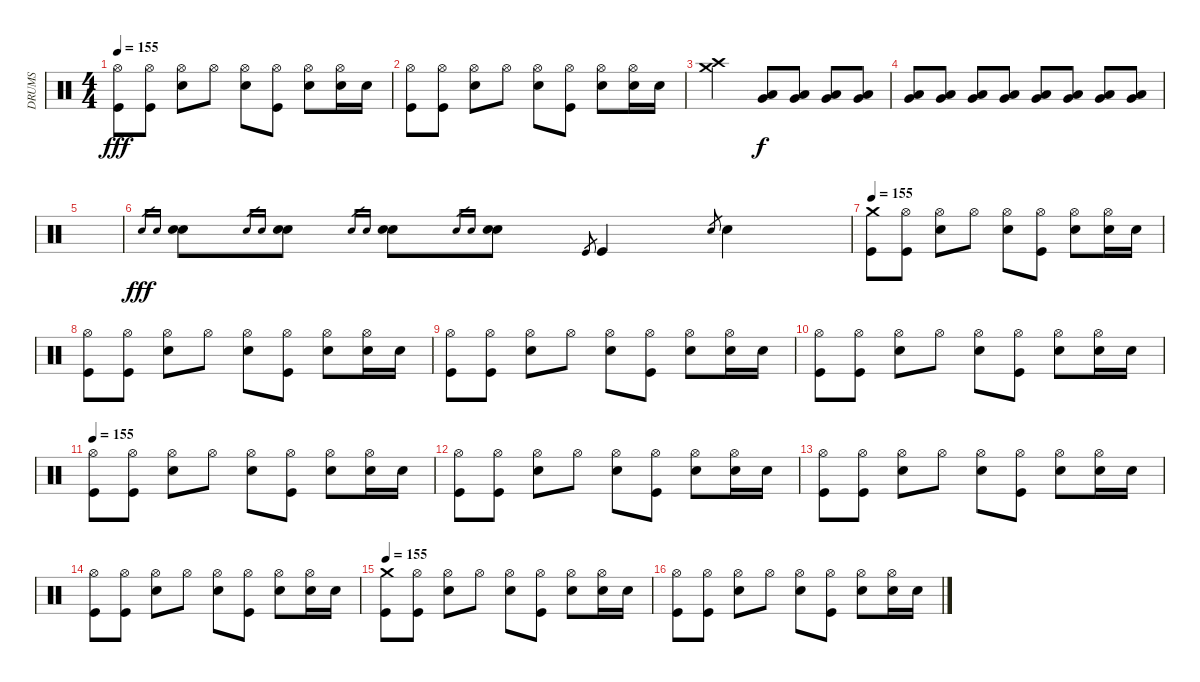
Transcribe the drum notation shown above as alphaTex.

\track ("DRUMS" "DRUMS") {instrument percussion}
\staff {score}
\articulation defaults
\ts (4 4)
\tempo 155
\clef neutral
\ks c
("Kick (hit)" "Hi-Hat (open)").8{dy fff} ("Kick (hit)" "Hi-Hat (open)").8 ("Snare (hit) 2" "Hi-Hat (open)").8 "Hi-Hat (open)".8 ("Snare (hit) 2" "Hi-Hat (open)").8 ("Kick (hit)" "Hi-Hat (open)").8 ("Snare (hit) 2" "Hi-Hat (open)").8 ("Snare (hit) 2" "Hi-Hat (open)").16 "Snare (hit) 2".16 |
("Kick (hit)" "Hi-Hat (open)").8 ("Kick (hit)" "Hi-Hat (open)").8 ("Snare (hit) 2" "Hi-Hat (open)").8 "Hi-Hat (open)".8 ("Snare (hit) 2" "Hi-Hat (open)").8 ("Kick (hit)" "Hi-Hat (open)").8 ("Snare (hit) 2" "Hi-Hat (open)").8 ("Snare (hit) 2" "Hi-Hat (open)").16 "Snare (hit) 2".16 |
("Crash medium (hit)" "Crash high (hit)").2 ("Low Tom (hit)" "Very Low Tom (hit)").8{dy f} ("Low Tom (hit)" "Very Low Tom (hit)").8 ("Low Tom (hit)" "Very Low Tom (hit)").8 ("Low Tom (hit)" "Very Low Tom (hit)").8 |
("Low Tom (hit)" "Very Low Tom (hit)").8 ("Low Tom (hit)" "Very Low Tom (hit)").8 ("Low Tom (hit)" "Very Low Tom (hit)").8 ("Low Tom (hit)" "Very Low Tom (hit)").8 ("Low Tom (hit)" "Very Low Tom (hit)").8 ("Low Tom (hit)" "Very Low Tom (hit)").8 ("Low Tom (hit)" "Very Low Tom (hit)").8 ("Low Tom (hit)" "Very Low Tom (hit)").8 |
|
"Snare (hit) 2".16{gr dy fff} "Snare (hit) 2".16{gr} ("Snare (hit) 2" "Snare (hit) 2").8 "Snare (hit) 2".16{gr} "Snare (hit) 2".16{gr} ("Snare (hit) 2" "Snare (hit) 2").8 "Snare (hit) 2".16{gr} "Snare (hit) 2".16{gr} ("Snare (hit) 2" "Snare (hit) 2").8 "Snare (hit) 2".16{gr} "Snare (hit) 2".16{gr} ("Snare (hit) 2" "Snare (hit) 2").8 "Kick (hit)".8{gr} "Kick (hit)".4 "Snare (hit) 2".8{gr} "Snare (hit) 2".4 |
\tempo 155
("Kick (hit)" "Crash medium (hit)").8 ("Kick (hit)" "Hi-Hat (open)").8 ("Snare (hit) 2" "Hi-Hat (open)").8 "Hi-Hat (open)".8 ("Snare (hit) 2" "Hi-Hat (open)").8 ("Kick (hit)" "Hi-Hat (open)").8 ("Snare (hit) 2" "Hi-Hat (open)").8 ("Snare (hit) 2" "Hi-Hat (open)").16 "Snare (hit) 2".16 |
("Kick (hit)" "Hi-Hat (open)").8 ("Kick (hit)" "Hi-Hat (open)").8 ("Snare (hit) 2" "Hi-Hat (open)").8 "Hi-Hat (open)".8 ("Snare (hit) 2" "Hi-Hat (open)").8 ("Kick (hit)" "Hi-Hat (open)").8 ("Snare (hit) 2" "Hi-Hat (open)").8 ("Snare (hit) 2" "Hi-Hat (open)").16 "Snare (hit) 2".16 |
("Kick (hit)" "Hi-Hat (open)").8 ("Kick (hit)" "Hi-Hat (open)").8 ("Snare (hit) 2" "Hi-Hat (open)").8 "Hi-Hat (open)".8 ("Snare (hit) 2" "Hi-Hat (open)").8 ("Kick (hit)" "Hi-Hat (open)").8 ("Snare (hit) 2" "Hi-Hat (open)").8 ("Snare (hit) 2" "Hi-Hat (open)").16 "Snare (hit) 2".16 |
("Kick (hit)" "Hi-Hat (open)").8 ("Kick (hit)" "Hi-Hat (open)").8 ("Snare (hit) 2" "Hi-Hat (open)").8 "Hi-Hat (open)".8 ("Snare (hit) 2" "Hi-Hat (open)").8 ("Kick (hit)" "Hi-Hat (open)").8 ("Snare (hit) 2" "Hi-Hat (open)").8 ("Snare (hit) 2" "Hi-Hat (open)").16 "Snare (hit) 2".16 |
\tempo 155
("Kick (hit)" "Hi-Hat (open)").8 ("Kick (hit)" "Hi-Hat (open)").8 ("Snare (hit) 2" "Hi-Hat (open)").8 "Hi-Hat (open)".8 ("Snare (hit) 2" "Hi-Hat (open)").8 ("Kick (hit)" "Hi-Hat (open)").8 ("Snare (hit) 2" "Hi-Hat (open)").8 ("Snare (hit) 2" "Hi-Hat (open)").16 "Snare (hit) 2".16 |
("Kick (hit)" "Hi-Hat (open)").8 ("Kick (hit)" "Hi-Hat (open)").8 ("Snare (hit) 2" "Hi-Hat (open)").8 "Hi-Hat (open)".8 ("Snare (hit) 2" "Hi-Hat (open)").8 ("Kick (hit)" "Hi-Hat (open)").8 ("Snare (hit) 2" "Hi-Hat (open)").8 ("Snare (hit) 2" "Hi-Hat (open)").16 "Snare (hit) 2".16 |
("Kick (hit)" "Hi-Hat (open)").8 ("Kick (hit)" "Hi-Hat (open)").8 ("Snare (hit) 2" "Hi-Hat (open)").8 "Hi-Hat (open)".8 ("Snare (hit) 2" "Hi-Hat (open)").8 ("Kick (hit)" "Hi-Hat (open)").8 ("Snare (hit) 2" "Hi-Hat (open)").8 ("Snare (hit) 2" "Hi-Hat (open)").16 "Snare (hit) 2".16 |
("Kick (hit)" "Hi-Hat (open)").8 ("Kick (hit)" "Hi-Hat (open)").8 ("Snare (hit) 2" "Hi-Hat (open)").8 "Hi-Hat (open)".8 ("Snare (hit) 2" "Hi-Hat (open)").8 ("Kick (hit)" "Hi-Hat (open)").8 ("Snare (hit) 2" "Hi-Hat (open)").8 ("Snare (hit) 2" "Hi-Hat (open)").16 "Snare (hit) 2".16 |
\tempo 155
("Kick (hit)" "Crash medium (hit)").8 ("Kick (hit)" "Hi-Hat (open)").8 ("Snare (hit) 2" "Hi-Hat (open)").8 "Hi-Hat (open)".8 ("Snare (hit) 2" "Hi-Hat (open)").8 ("Kick (hit)" "Hi-Hat (open)").8 ("Snare (hit) 2" "Hi-Hat (open)").8 ("Snare (hit) 2" "Hi-Hat (open)").16 "Snare (hit) 2".16 |
("Kick (hit)" "Hi-Hat (open)").8 ("Kick (hit)" "Hi-Hat (open)").8 ("Snare (hit) 2" "Hi-Hat (open)").8 "Hi-Hat (open)".8 ("Snare (hit) 2" "Hi-Hat (open)").8 ("Kick (hit)" "Hi-Hat (open)").8 ("Snare (hit) 2" "Hi-Hat (open)").8 ("Snare (hit) 2" "Hi-Hat (open)").16 "Snare (hit) 2".16
